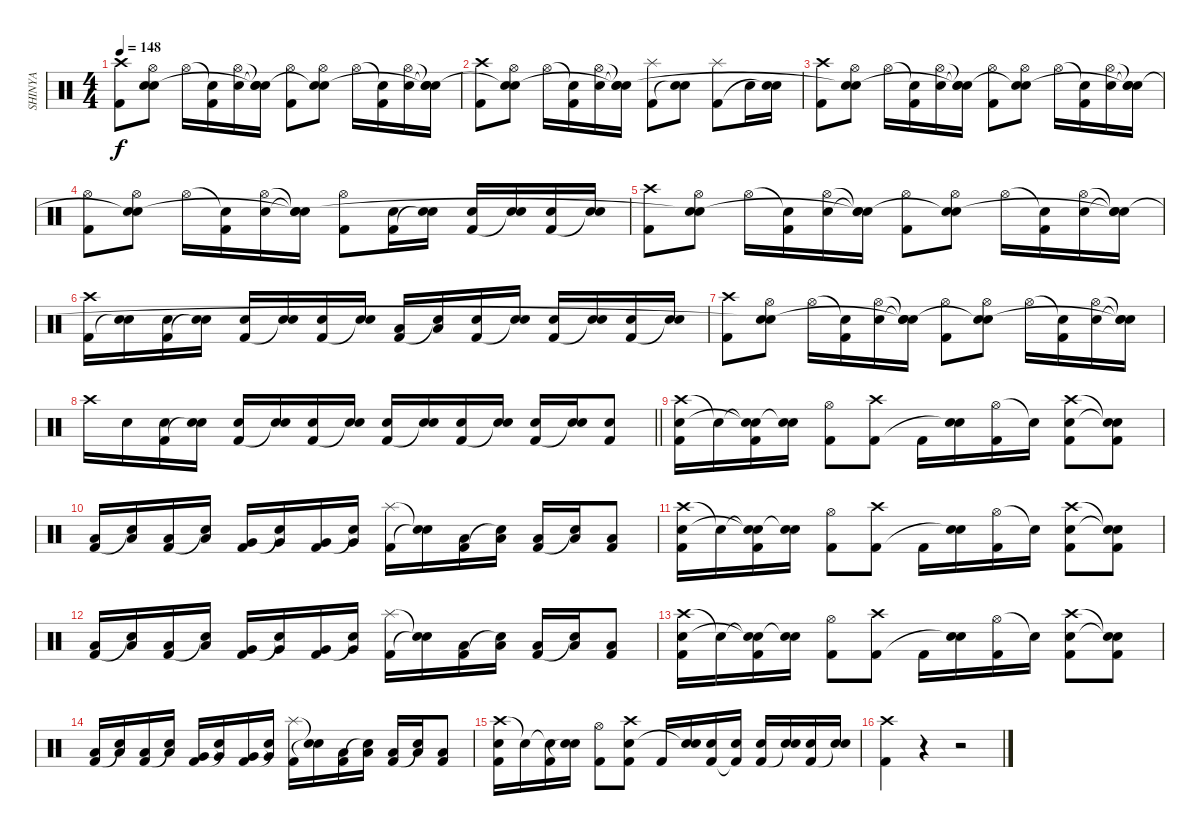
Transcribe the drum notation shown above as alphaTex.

\track ("SHINYA" "SHINYA") {instrument percussion}
\staff {score}
\articulation defaults
\ts (4 4)
\tempo 148
\clef neutral
\ks c
("Crash high (hit)" "Kick (hit) 2").8{dy f} ("Hi-Hat (open)" "Electric Snare (hit)" "Snare (hit)"{t}).8 "Hi-Hat (open)".16 ("Snare (hit)"{t} "Kick (hit) 2").16 ("Hi-Hat (open)" "Electric Snare (hit)").16 ("Snare (hit)"{t} "Electric Snare (hit)"{t} "Snare (hit)"{t}).16 ("Hi-Hat (open)" "Kick (hit) 2").8 ("Hi-Hat (open)" "Electric Snare (hit)" "Snare (hit)"{t}).8 "Hi-Hat (open)".16 ("Snare (hit)"{t} "Kick (hit) 2").16 ("Hi-Hat (open)" "Electric Snare (hit)").16 ("Snare (hit)"{t} "Electric Snare (hit)"{t} "Snare (hit)"{t}).16 |
("Crash high (hit)" "Kick (hit) 2").8 ("Hi-Hat (open)" "Electric Snare (hit)" "Snare (hit)"{t}).8 "Hi-Hat (open)".16 ("Snare (hit)"{t} "Kick (hit) 2").16 ("Hi-Hat (open)" "Electric Snare (hit)").16 ("Snare (hit)"{t} "Snare (hit)"{t} "Snare (hit)"{t}).16 ("Splash (hit)" "Kick (hit) 2").8 ("Electric Snare (hit)" "Snare (hit)"{t}).8 ("Splash (hit)" "Kick (hit) 2").8 "Electric Snare (hit)".16 ("Electric Snare (hit)" "Snare (hit)"{t}).16 |
("Crash high (hit)" "Kick (hit) 2").8 ("Hi-Hat (open)" "Electric Snare (hit)" "Snare (hit)"{t}).8 "Hi-Hat (open)".16 ("Snare (hit)"{t} "Kick (hit) 2").16 ("Hi-Hat (open)" "Electric Snare (hit)").16 ("Snare (hit)"{t} "Electric Snare (hit)"{t} "Snare (hit)"{t}).16 ("Hi-Hat (open)" "Kick (hit) 2").8 ("Hi-Hat (open)" "Electric Snare (hit)" "Snare (hit)"{t}).8 "Hi-Hat (open)".16 ("Snare (hit)"{t} "Kick (hit) 2").16 ("Hi-Hat (open)" "Electric Snare (hit)").16 ("Snare (hit)"{t} "Electric Snare (hit)"{t} "Snare (hit)"{t}).16 |
("Hi-Hat (open)" "Kick (hit) 2").8 ("Hi-Hat (open)" "Electric Snare (hit)" "Snare (hit)"{t}).8 "Hi-Hat (open)".16 ("Snare (hit)"{t} "Kick (hit) 2").16 ("Hi-Hat (open)" "Electric Snare (hit)").16 ("Snare (hit)"{t} "Snare (hit)"{t} "Snare (hit)"{t}).16 ("Hi-Hat (open)" "Kick (hit) 2").8 ("Electric Snare (hit)" "Kick (hit) 2").16 ("Electric Snare (hit)" "Snare (hit)"{t}).16 ("Electric Snare (hit)" "Kick (hit) 2").16 ("Electric Snare (hit)" "Snare (hit)"{t}).16 ("Electric Snare (hit)" "Kick (hit) 2").16 ("Electric Snare (hit)" "Snare (hit)"{t}).16 |
("Crash high (hit)" "Kick (hit) 2").8 ("Hi-Hat (open)" "Electric Snare (hit)" "Snare (hit)"{t}).8 "Hi-Hat (open)".16 ("Snare (hit)"{t} "Kick (hit) 2").16 ("Hi-Hat (open)" "Electric Snare (hit)").16 ("Snare (hit)"{t} "Electric Snare (hit)"{t} "Snare (hit)"{t}).16 ("Hi-Hat (open)" "Kick (hit) 2").8 ("Hi-Hat (open)" "Electric Snare (hit)" "Snare (hit)"{t}).8 "Hi-Hat (open)".16 ("Snare (hit)"{t} "Kick (hit) 2").16 ("Hi-Hat (open)" "Electric Snare (hit)").16 ("Snare (hit)"{t} "Electric Snare (hit)"{t} "Snare (hit)"{t}).16 |
("Crash high (hit)" "Kick (hit) 2").16 ("Electric Snare (hit)" "Snare (hit)"{t}).16 ("Electric Snare (hit)" "Kick (hit) 2").16 ("Electric Snare (hit)" "Snare (hit)"{t}).16 ("Electric Snare (hit)" "Kick (hit) 2").16 ("Electric Snare (hit)" "Snare (hit)"{t}).16 ("Electric Snare (hit)" "Kick (hit) 2").16 ("Electric Snare (hit)" "Snare (hit)"{t}).16 ("Low Tom (hit)" "Kick (hit) 2").16 ("Low Tom (hit)" "Snare (hit)"{t}).16 ("Electric Snare (hit)" "Kick (hit) 2").16 ("Electric Snare (hit)" "Snare (hit)"{t}).16 ("Electric Snare (hit)" "Kick (hit) 2").16 ("Electric Snare (hit)" "Snare (hit)"{t}).16 ("Electric Snare (hit)" "Kick (hit) 2").16 ("Electric Snare (hit)" "Snare (hit)"{t}).16 |
("Crash high (hit)" "Kick (hit) 2").8 ("Hi-Hat (open)" "Electric Snare (hit)" "Snare (hit)"{t}).8 "Hi-Hat (open)".16 ("Snare (hit)"{t} "Kick (hit) 2").16 ("Hi-Hat (open)" "Electric Snare (hit)").16 ("Snare (hit)"{t} "Electric Snare (hit)"{t} "Snare (hit)"{t}).16 ("Hi-Hat (open)" "Kick (hit) 2").8 ("Hi-Hat (open)" "Electric Snare (hit)" "Snare (hit)"{t}).8 "Hi-Hat (open)".16 ("Snare (hit)"{t} "Kick (hit) 2").16 ("Hi-Hat (open)" "Electric Snare (hit)").16 ("Snare (hit)"{t} "Electric Snare (hit)"{t} "Snare (hit)"{t}).16 |
\barLineRight lightlight "Crash high (hit)".16 "Electric Snare (hit)".16
("Electric Snare (hit)" "Kick (hit) 2").16 ("Electric Snare (hit)" "Snare (hit)"{t}).16 ("Electric Snare (hit)" "Kick (hit) 2").16 ("Electric Snare (hit)" "Snare (hit)"{t}).16 ("Electric Snare (hit)" "Kick (hit) 2").16 ("Electric Snare (hit)" "Snare (hit)"{t}).16 ("Electric Snare (hit)" "Kick (hit) 2").16 ("Electric Snare (hit)" "Snare (hit)"{t}).16 ("Electric Snare (hit)" "Kick (hit) 2").16 ("Electric Snare (hit)" "Snare (hit)"{t}).16 ("Electric Snare (hit)" "Kick (hit) 2").16 ("Electric Snare (hit)" "Snare (hit)"{t}).16 ("Electric Snare (hit)" "Kick (hit) 2").8 |
("Crash high (hit)" "Electric Snare (hit)" "Kick (hit) 2").16 "Snare (hit)"{t}.16 ("Snare (hit)"{t} "Electric Snare (hit)"{t} "Kick (hit) 2").16 ("Electric Snare (hit)" "Snare (hit)"{t}).16 ("Hi-Hat (open)" "Kick (hit) 2").8 ("Crash high (hit)" "Kick (hit) 2").8 "Kick (hit) 2".16 ("Electric Snare (hit)" "Snare (hit)"{t}).16 ("Hi-Hat (open)" "Kick (hit) 2").16 "Snare (hit)"{t}.16 ("Crash high (hit)" "Electric Snare (hit)" "Kick (hit) 2").8 ("Snare (hit)"{t} "Snare (hit)"{t} "Kick (hit) 2").8 |
("Low Tom (hit)" "Kick (hit) 2").16 ("Low Tom (hit)" "Snare (hit)"{t}).16 ("Low Tom (hit)" "Kick (hit) 2").16 ("Low Tom (hit)" "Snare (hit)"{t}).16 ("Very Low Tom (hit)" "Kick (hit) 2").16 ("Very Low Tom (hit)" "Snare (hit)"{t}).16 ("Very Low Tom (hit)" "Kick (hit) 2").16 ("Very Low Tom (hit)" "Snare (hit)"{t}).16 ("Splash (hit)" "Kick (hit) 2").16 ("Snare (hit)"{t} "Snare (hit)"{t}).16 ("Low Floor Tom (hit)" "Kick (hit) 2").16 ("Low Floor Tom (hit)" "Snare (hit)"{t}).16 ("Low Floor Tom (hit)" "Kick (hit) 2").16 ("Low Floor Tom (hit)" "Snare (hit)"{t}).16 ("Low Floor Tom (hit)" "Kick (hit) 2").8 |
("Crash high (hit)" "Electric Snare (hit)" "Kick (hit) 2").16 "Snare (hit)"{t}.16 ("Snare (hit)"{t} "Electric Snare (hit)"{t} "Kick (hit) 2").16 ("Electric Snare (hit)" "Snare (hit)"{t}).16 ("Hi-Hat (open)" "Kick (hit) 2").8 ("Crash high (hit)" "Kick (hit) 2").8 "Kick (hit) 2".16 ("Electric Snare (hit)" "Snare (hit)"{t}).16 ("Hi-Hat (open)" "Kick (hit) 2").16 "Snare (hit)"{t}.16 ("Crash high (hit)" "Electric Snare (hit)" "Kick (hit) 2").8 ("Snare (hit)"{t} "Snare (hit)"{t} "Kick (hit) 2").8 |
("Low Tom (hit)" "Kick (hit) 2").16 ("Low Tom (hit)" "Snare (hit)"{t}).16 ("Low Tom (hit)" "Kick (hit) 2").16 ("Low Tom (hit)" "Snare (hit)"{t}).16 ("Very Low Tom (hit)" "Kick (hit) 2").16 ("Very Low Tom (hit)" "Snare (hit)"{t}).16 ("Very Low Tom (hit)" "Kick (hit) 2").16 ("Very Low Tom (hit)" "Snare (hit)"{t}).16 ("Splash (hit)" "Kick (hit) 2").16 ("Snare (hit)"{t} "Snare (hit)"{t}).16 ("Low Floor Tom (hit)" "Kick (hit) 2").16 ("Low Floor Tom (hit)" "Snare (hit)"{t}).16 ("Low Floor Tom (hit)" "Kick (hit) 2").16 ("Low Floor Tom (hit)" "Snare (hit)"{t}).16 ("Low Floor Tom (hit)" "Kick (hit) 2").8 |
("Crash high (hit)" "Electric Snare (hit)" "Kick (hit) 2").16 "Snare (hit)"{t}.16 ("Snare (hit)"{t} "Electric Snare (hit)"{t} "Kick (hit) 2").16 ("Electric Snare (hit)" "Snare (hit)"{t}).16 ("Hi-Hat (open)" "Kick (hit) 2").8 ("Crash high (hit)" "Kick (hit) 2").8 "Kick (hit) 2".16 ("Electric Snare (hit)" "Snare (hit)"{t}).16 ("Hi-Hat (open)" "Kick (hit) 2").16 "Snare (hit)"{t}.16 ("Crash high (hit)" "Electric Snare (hit)" "Kick (hit) 2").8 ("Snare (hit)"{t} "Snare (hit)"{t} "Kick (hit) 2").8 |
("Low Tom (hit)" "Kick (hit) 2").16 ("Low Tom (hit)" "Snare (hit)"{t}).16 ("Low Tom (hit)" "Kick (hit) 2").16 ("Low Tom (hit)" "Snare (hit)"{t}).16 ("Very Low Tom (hit)" "Kick (hit) 2").16 ("Very Low Tom (hit)" "Snare (hit)"{t}).16 ("Very Low Tom (hit)" "Kick (hit) 2").16 ("Very Low Tom (hit)" "Snare (hit)"{t}).16 ("Splash (hit)" "Kick (hit) 2").16 ("Snare (hit)"{t} "Snare (hit)"{t}).16 ("Low Floor Tom (hit)" "Kick (hit) 2").16 ("Low Floor Tom (hit)" "Snare (hit)"{t}).16 ("Low Floor Tom (hit)" "Kick (hit) 2").16 ("Low Floor Tom (hit)" "Snare (hit)"{t}).16 ("Low Floor Tom (hit)" "Kick (hit) 2").8 |
("Crash high (hit)" "Electric Snare (hit)" "Kick (hit) 2").16 "Snare (hit)"{t}.16 ("Snare (hit)"{t} "Kick (hit) 2").16 ("Electric Snare (hit)" "Snare (hit)"{t}).16 ("Hi-Hat (open)" "Kick (hit) 2").8 ("Crash high (hit)" "Electric Snare (hit)" "Kick (hit) 2").8 "Kick (hit) 2".16 ("Electric Snare (hit)" "Snare (hit)"{t}).16 ("Electric Snare (hit)" "Kick (hit) 2").16 ("Electric Snare (hit)" "Kick (hit) 2"{t}).16 ("Electric Snare (hit)" "Kick (hit) 2").16 ("Electric Snare (hit)" "Snare (hit)"{t}).16 ("Electric Snare (hit)" "Kick (hit) 2").16 ("Electric Snare (hit)" "Snare (hit)"{t}).16 |
("Crash high (hit)" "Kick (hit) 2").4 r.4 r.2
